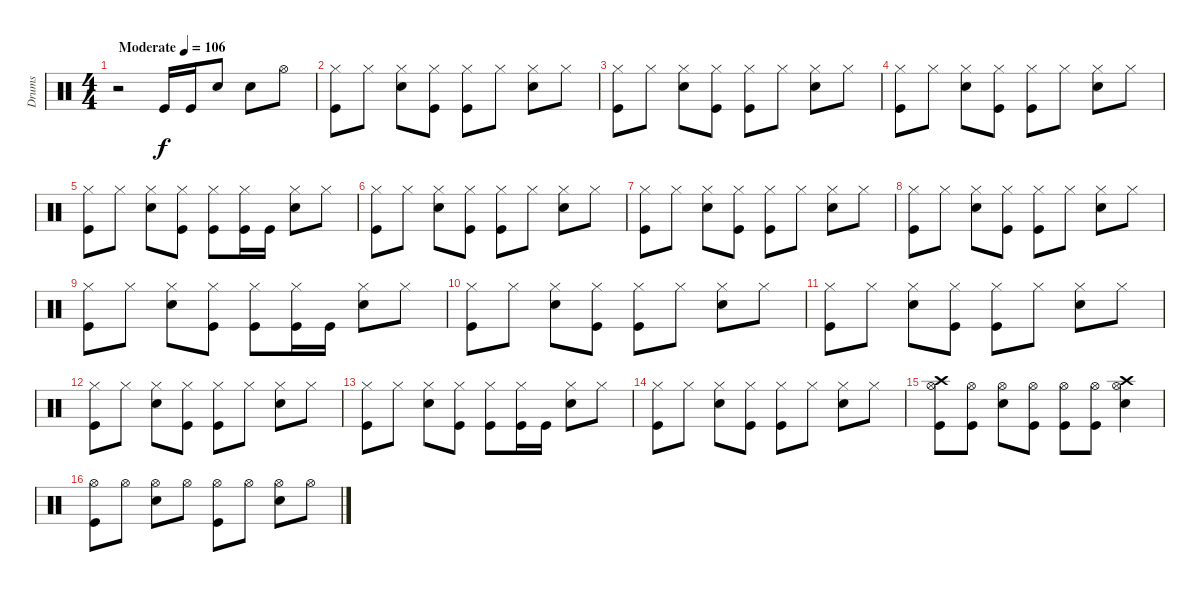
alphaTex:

\track ("Drums" "Drums") {instrument percussion}
\staff {score}
\articulation defaults
\ts (4 4)
\tempo (106 "Moderate")
\clef neutral
\ks c
r.2{dy f} "Kick (hit)".16 "Kick (hit)".16 "Snare (hit) 2".8 "Snare (hit) 2".8 "Hi-Hat (open)".8 |
("Kick (hit)" "Hi-Hat (closed)").8{volume 12} "Hi-Hat (closed)".8 ("Snare (hit) 2" "Hi-Hat (closed)").8 ("Hi-Hat (closed)" "Kick (hit)").8 ("Kick (hit)" "Hi-Hat (closed)").8 "Hi-Hat (closed)".8 ("Snare (hit) 2" "Hi-Hat (closed)").8 "Hi-Hat (closed)".8 |
("Kick (hit)" "Hi-Hat (closed)").8{volume 12} "Hi-Hat (closed)".8 ("Snare (hit) 2" "Hi-Hat (closed)").8 ("Hi-Hat (closed)" "Kick (hit)").8 ("Kick (hit)" "Hi-Hat (closed)").8 "Hi-Hat (closed)".8 ("Snare (hit) 2" "Hi-Hat (closed)").8 "Hi-Hat (closed)".8 |
("Kick (hit)" "Hi-Hat (closed)").8{volume 12} "Hi-Hat (closed)".8 ("Snare (hit) 2" "Hi-Hat (closed)").8 ("Hi-Hat (closed)" "Kick (hit)").8 ("Kick (hit)" "Hi-Hat (closed)").8 "Hi-Hat (closed)".8 ("Snare (hit) 2" "Hi-Hat (closed)").8 "Hi-Hat (closed)".8 |
("Kick (hit)" "Hi-Hat (closed)").8{volume 12} "Hi-Hat (closed)".8 ("Snare (hit) 2" "Hi-Hat (closed)").8 ("Hi-Hat (closed)" "Kick (hit)").8 ("Kick (hit)" "Hi-Hat (closed)").8 ("Kick (hit)" "Hi-Hat (closed)").16 "Kick (hit)".16 ("Snare (hit) 2" "Hi-Hat (closed)").8 "Hi-Hat (closed)".8 |
("Kick (hit)" "Hi-Hat (closed)").8{volume 12} "Hi-Hat (closed)".8 ("Snare (hit) 2" "Hi-Hat (closed)").8 ("Hi-Hat (closed)" "Kick (hit)").8 ("Kick (hit)" "Hi-Hat (closed)").8 "Hi-Hat (closed)".8 ("Snare (hit) 2" "Hi-Hat (closed)").8 "Hi-Hat (closed)".8 |
("Kick (hit)" "Hi-Hat (closed)").8{volume 12} "Hi-Hat (closed)".8 ("Snare (hit) 2" "Hi-Hat (closed)").8 ("Hi-Hat (closed)" "Kick (hit)").8 ("Kick (hit)" "Hi-Hat (closed)").8 "Hi-Hat (closed)".8 ("Snare (hit) 2" "Hi-Hat (closed)").8 "Hi-Hat (closed)".8 |
("Kick (hit)" "Hi-Hat (closed)").8{volume 12} "Hi-Hat (closed)".8 ("Snare (hit) 2" "Hi-Hat (closed)").8 ("Hi-Hat (closed)" "Kick (hit)").8 ("Kick (hit)" "Hi-Hat (closed)").8 "Hi-Hat (closed)".8 ("Snare (hit) 2" "Hi-Hat (closed)").8 "Hi-Hat (closed)".8 |
("Kick (hit)" "Hi-Hat (closed)").8{volume 12} "Hi-Hat (closed)".8 ("Snare (hit) 2" "Hi-Hat (closed)").8 ("Hi-Hat (closed)" "Kick (hit)").8 ("Kick (hit)" "Hi-Hat (closed)").8 ("Kick (hit)" "Hi-Hat (closed)").16 "Kick (hit)".16 ("Snare (hit) 2" "Hi-Hat (closed)").8 "Hi-Hat (closed)".8 |
("Kick (hit)" "Hi-Hat (closed)").8{volume 12} "Hi-Hat (closed)".8 ("Snare (hit) 2" "Hi-Hat (closed)").8 ("Hi-Hat (closed)" "Kick (hit)").8 ("Kick (hit)" "Hi-Hat (closed)").8 "Hi-Hat (closed)".8 ("Snare (hit) 2" "Hi-Hat (closed)").8 "Hi-Hat (closed)".8 |
("Kick (hit)" "Hi-Hat (closed)").8{volume 12} "Hi-Hat (closed)".8 ("Snare (hit) 2" "Hi-Hat (closed)").8 ("Hi-Hat (closed)" "Kick (hit)").8 ("Kick (hit)" "Hi-Hat (closed)").8 "Hi-Hat (closed)".8 ("Snare (hit) 2" "Hi-Hat (closed)").8 "Hi-Hat (closed)".8 |
("Kick (hit)" "Hi-Hat (closed)").8{volume 12} "Hi-Hat (closed)".8 ("Snare (hit) 2" "Hi-Hat (closed)").8 ("Hi-Hat (closed)" "Kick (hit)").8 ("Kick (hit)" "Hi-Hat (closed)").8 "Hi-Hat (closed)".8 ("Snare (hit) 2" "Hi-Hat (closed)").8 "Hi-Hat (closed)".8 |
("Kick (hit)" "Hi-Hat (closed)").8{volume 12} "Hi-Hat (closed)".8 ("Snare (hit) 2" "Hi-Hat (closed)").8 ("Hi-Hat (closed)" "Kick (hit)").8 ("Kick (hit)" "Hi-Hat (closed)").8 ("Kick (hit)" "Hi-Hat (closed)").16 "Kick (hit)".16 ("Snare (hit) 2" "Hi-Hat (closed)").8 "Hi-Hat (closed)".8 |
("Kick (hit)" "Hi-Hat (closed)").8{volume 12} "Hi-Hat (closed)".8 ("Snare (hit) 2" "Hi-Hat (closed)").8 ("Hi-Hat (closed)" "Kick (hit)").8 ("Kick (hit)" "Hi-Hat (closed)").8 "Hi-Hat (closed)".8 ("Snare (hit) 2" "Hi-Hat (closed)").8 "Hi-Hat (closed)".8 |
("Kick (hit)" "Crash high (hit)" "Hi-Hat (open)").8{volume 12} ("Kick (hit)" "Hi-Hat (open)").8 ("Snare (hit) 2" "Hi-Hat (open)").8 ("Kick (hit)" "Hi-Hat (open)").8 ("Kick (hit)" "Hi-Hat (open)").8 ("Kick (hit)" "Hi-Hat (open)").8 ("Snare (hit) 2" "Crash high (hit)" "Hi-Hat (open)").4 |
("Kick (hit)" "Hi-Hat (open)").8{volume 12} "Hi-Hat (open)".8 ("Snare (hit) 2" "Hi-Hat (open)").8 "Hi-Hat (open)".8 ("Kick (hit)" "Hi-Hat (open)").8 "Hi-Hat (open)".8 ("Snare (hit) 2" "Hi-Hat (open)").8 "Hi-Hat (open)".8
